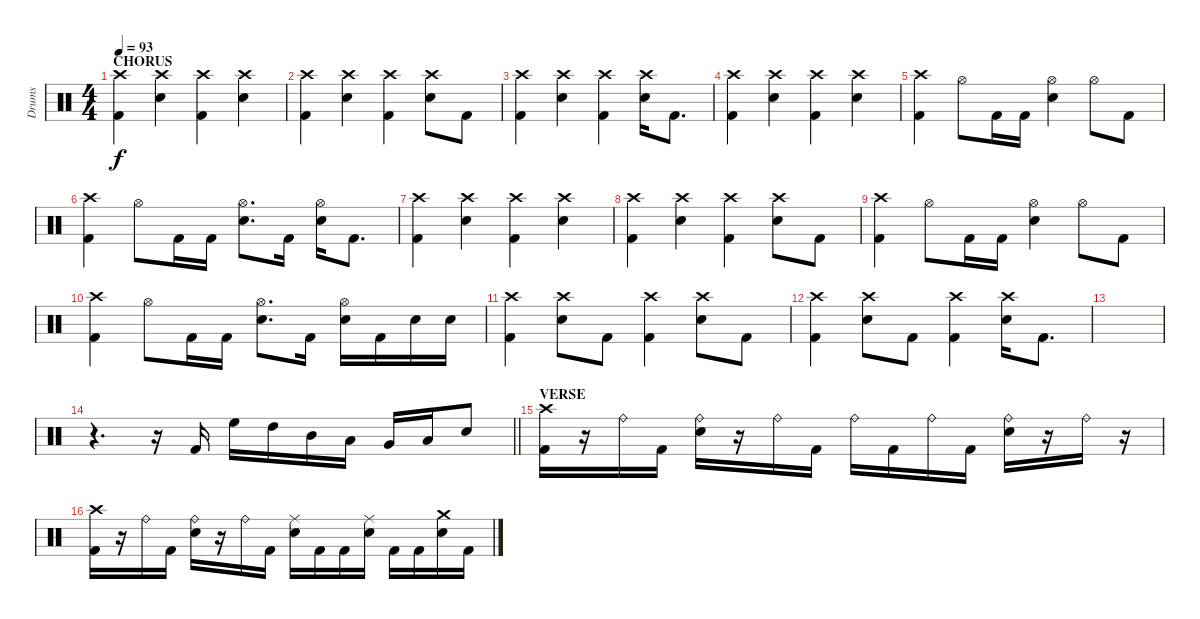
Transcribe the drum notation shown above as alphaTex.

\track ("Drums" "Drums") {instrument percussion}
\staff
\articulation defaults
\ts (4 4)
\section ("" "CHORUS")
\tempo 93
\clef neutral
\ks c
("Crash high (hit)" "Kick (hit) 2").4{dy f} ("Crash high (hit)" "Snare (hit) 2").4 ("Crash high (hit)" "Kick (hit) 2").4 ("Crash high (hit)" "Snare (hit) 2").4 |
("Crash high (hit)" "Kick (hit) 2").4 ("Crash high (hit)" "Snare (hit) 2").4 ("Crash high (hit)" "Kick (hit) 2").4 ("Crash high (hit)" "Snare (hit) 2").8 "Kick (hit) 2".8 |
("Crash high (hit)" "Kick (hit) 2").4 ("Crash high (hit)" "Snare (hit) 2").4 ("Crash high (hit)" "Kick (hit) 2").4 ("Crash high (hit)" "Snare (hit) 2").16 "Kick (hit) 2".8{d} |
("Crash high (hit)" "Kick (hit) 2").4 ("Crash high (hit)" "Snare (hit) 2").4 ("Crash high (hit)" "Kick (hit) 2").4 ("Crash high (hit)" "Snare (hit) 2").4 |
("Crash high (hit)" "Kick (hit) 2").4 "Hi-Hat (open)".8 "Kick (hit) 2".16 "Kick (hit) 2".16 ("Hi-Hat (open)" "Snare (hit) 2").4 "Hi-Hat (open)".8 "Kick (hit) 2".8 |
("Crash high (hit)" "Kick (hit) 2").4 "Hi-Hat (open)".8 "Kick (hit) 2".16 "Kick (hit) 2".16 ("Hi-Hat (open)" "Snare (hit) 2").8{d} "Kick (hit) 2".16 ("Hi-Hat (open)" "Snare (hit) 2").16 "Kick (hit) 2".8{d} |
("Crash high (hit)" "Kick (hit) 2").4 ("Crash high (hit)" "Snare (hit) 2").4 ("Crash high (hit)" "Kick (hit) 2").4 ("Crash high (hit)" "Snare (hit) 2").4 |
("Crash high (hit)" "Kick (hit) 2").4 ("Crash high (hit)" "Snare (hit) 2").4 ("Crash high (hit)" "Kick (hit) 2").4 ("Crash high (hit)" "Snare (hit) 2").8 "Kick (hit) 2".8 |
("Crash high (hit)" "Kick (hit) 2").4 "Hi-Hat (open)".8 "Kick (hit) 2".16 "Kick (hit) 2".16 ("Hi-Hat (open)" "Snare (hit) 2").4 "Hi-Hat (open)".8 "Kick (hit) 2".8 |
("Crash high (hit)" "Kick (hit) 2").4 "Hi-Hat (open)".8 "Kick (hit) 2".16 "Kick (hit) 2".16 ("Hi-Hat (open)" "Snare (hit) 2").8{d} "Kick (hit) 2".16 ("Hi-Hat (open)" "Snare (hit) 2").16 "Kick (hit) 2".16 "Snare (hit) 2".16 "Snare (hit) 2".16 |
("Crash high (hit)" "Kick (hit) 2").4 ("Crash high (hit)" "Snare (hit) 2").8 "Kick (hit) 2".8 ("Crash high (hit)" "Kick (hit) 2").4 ("Crash high (hit)" "Snare (hit) 2").8 "Kick (hit) 2".8 |
("Crash high (hit)" "Kick (hit) 2").4 ("Crash high (hit)" "Snare (hit) 2").8 "Kick (hit) 2".8 ("Crash high (hit)" "Kick (hit) 2").4 ("Crash high (hit)" "Snare (hit) 2").16 "Kick (hit) 2".8{d} |
|
\barLineRight lightlight
r.4{d} r.16 "Kick (hit) 2".16 "High Floor Tom (hit)".16{balance 16} "High Tom (hit)".16{balance 12} "Mid Tom (hit)".16{balance 10} "Low Tom (hit)".16{balance 6} "Very Low Tom (hit)".16{balance 4} "Low Floor Tom (hit)".16{balance 0} "Snare (hit) 2".8{balance 8} |
\section ("" "VERSE")
("Crash high (hit)" "Kick (hit) 2").16 r.16 "Ride (bell)".16 "Kick (hit) 2".16 ("Ride (bell)" "Snare (hit) 2").16 r.16 "Ride (bell)".16 "Kick (hit) 2".16 "Ride (bell)".16 "Kick (hit) 2".16 "Ride (bell)".16 "Kick (hit) 2".16 ("Ride (bell)" "Snare (hit) 2").16 r.16 "Ride (bell)".16 r.16 |
("Crash high (hit)" "Kick (hit) 2").16 r.16 "Ride (bell)".16 "Kick (hit) 2".16 ("Ride (bell)" "Snare (hit) 2").16 r.16 "Ride (bell)".16 "Kick (hit) 2".16 ("Ride (middle)" "Snare (hit) 2").16 "Kick (hit) 2".16 "Kick (hit) 2".16 ("Ride (middle)" "Snare (hit) 2").16 "Kick (hit) 2".16 "Kick (hit) 2".16 ("Crash medium (hit)" "Snare (hit) 2").16 "Kick (hit) 2".16
